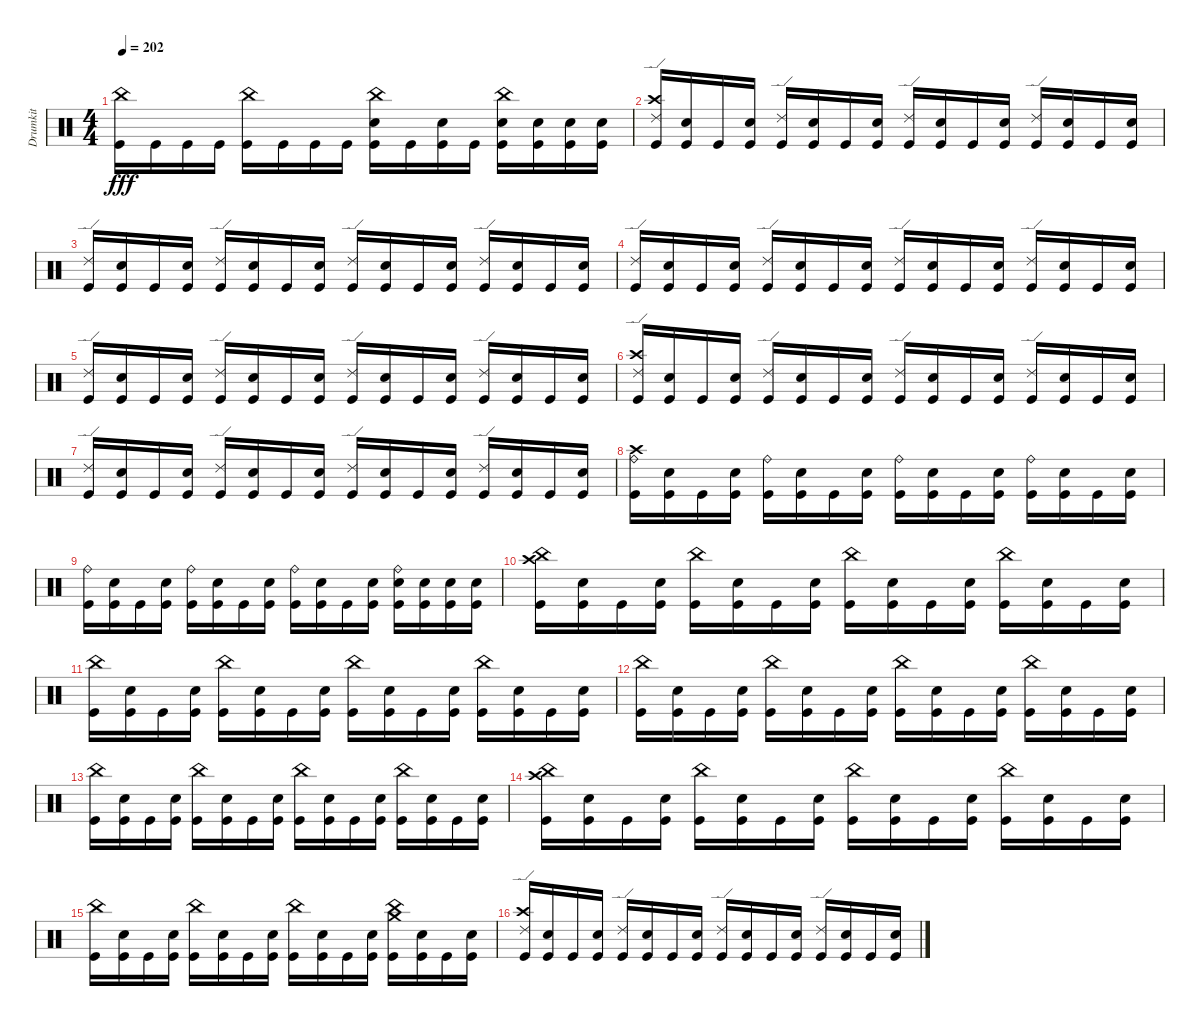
\track ("Drumkit" "Drumkit") {instrument percussion}
\staff {score}
\articulation defaults
\ts (4 4)
\tempo 202
\clef neutral
\ks c
("China (hit)" "Kick (hit)").16{dy fff} "Kick (hit)".16 "Kick (hit)".16 "Kick (hit)".16 ("China (hit)" "Kick (hit)").16 "Kick (hit)".16 "Kick (hit)".16 "Kick (hit)".16 ("China (hit)" "Snare (hit) 2" "Kick (hit)").16 "Kick (hit)".16 ("Snare (hit) 2" "Kick (hit)").16 "Kick (hit)".16 ("China (hit)" "Snare (hit) 2" "Kick (hit)").16 ("Snare (hit) 2" "Kick (hit)").16 ("Snare (hit) 2" "Kick (hit)").16 ("Snare (hit) 2" "Kick (hit)").16 |
("Crash high (hit)" "Ride (edge) 2" "Kick (hit)").16 ("Snare (hit) 2" "Kick (hit)").16 "Kick (hit)".16 ("Snare (hit) 2" "Kick (hit)").16 ("Ride (edge) 2" "Kick (hit)").16 ("Snare (hit) 2" "Kick (hit)").16 "Kick (hit)".16 ("Snare (hit) 2" "Kick (hit)").16 ("Ride (edge) 2" "Kick (hit)").16 ("Snare (hit) 2" "Kick (hit)").16 "Kick (hit)".16 ("Snare (hit) 2" "Kick (hit)").16 ("Ride (edge) 2" "Kick (hit)").16 ("Snare (hit) 2" "Kick (hit)").16 "Kick (hit)".16 ("Snare (hit) 2" "Kick (hit)").16 |
("Ride (edge) 2" "Kick (hit)").16 ("Snare (hit) 2" "Kick (hit)").16 "Kick (hit)".16 ("Snare (hit) 2" "Kick (hit)").16 ("Ride (edge) 2" "Kick (hit)").16 ("Snare (hit) 2" "Kick (hit)").16 "Kick (hit)".16 ("Snare (hit) 2" "Kick (hit)").16 ("Ride (edge) 2" "Kick (hit)").16 ("Snare (hit) 2" "Kick (hit)").16 "Kick (hit)".16 ("Snare (hit) 2" "Kick (hit)").16 ("Ride (edge) 2" "Kick (hit)").16 ("Snare (hit) 2" "Kick (hit)").16 "Kick (hit)".16 ("Snare (hit) 2" "Kick (hit)").16 |
("Ride (edge) 2" "Kick (hit)").16 ("Snare (hit) 2" "Kick (hit)").16 "Kick (hit)".16 ("Snare (hit) 2" "Kick (hit)").16 ("Ride (edge) 2" "Kick (hit)").16 ("Snare (hit) 2" "Kick (hit)").16 "Kick (hit)".16 ("Snare (hit) 2" "Kick (hit)").16 ("Ride (edge) 2" "Kick (hit)").16 ("Snare (hit) 2" "Kick (hit)").16 "Kick (hit)".16 ("Snare (hit) 2" "Kick (hit)").16 ("Ride (edge) 2" "Kick (hit)").16 ("Snare (hit) 2" "Kick (hit)").16 "Kick (hit)".16 ("Snare (hit) 2" "Kick (hit)").16 |
("Ride (edge) 2" "Kick (hit)").16 ("Snare (hit) 2" "Kick (hit)").16 "Kick (hit)".16 ("Snare (hit) 2" "Kick (hit)").16 ("Ride (edge) 2" "Kick (hit)").16 ("Snare (hit) 2" "Kick (hit)").16 "Kick (hit)".16 ("Snare (hit) 2" "Kick (hit)").16 ("Ride (edge) 2" "Kick (hit)").16 ("Snare (hit) 2" "Kick (hit)").16 "Kick (hit)".16 ("Snare (hit) 2" "Kick (hit)").16 ("Ride (edge) 2" "Kick (hit)").16 ("Snare (hit) 2" "Kick (hit)").16 "Kick (hit)".16 ("Snare (hit) 2" "Kick (hit)").16 |
("Crash high (hit)" "Ride (edge) 2" "Kick (hit)").16 ("Snare (hit) 2" "Kick (hit)").16 "Kick (hit)".16 ("Snare (hit) 2" "Kick (hit)").16 ("Ride (edge) 2" "Kick (hit)").16 ("Snare (hit) 2" "Kick (hit)").16 "Kick (hit)".16 ("Snare (hit) 2" "Kick (hit)").16 ("Ride (edge) 2" "Kick (hit)").16 ("Snare (hit) 2" "Kick (hit)").16 "Kick (hit)".16 ("Snare (hit) 2" "Kick (hit)").16 ("Ride (edge) 2" "Kick (hit)").16 ("Snare (hit) 2" "Kick (hit)").16 "Kick (hit)".16 ("Snare (hit) 2" "Kick (hit)").16 |
("Ride (edge) 2" "Kick (hit)").16 ("Snare (hit) 2" "Kick (hit)").16 "Kick (hit)".16 ("Snare (hit) 2" "Kick (hit)").16 ("Ride (edge) 2" "Kick (hit)").16 ("Snare (hit) 2" "Kick (hit)").16 "Kick (hit)".16 ("Snare (hit) 2" "Kick (hit)").16 ("Ride (edge) 2" "Kick (hit)").16 ("Snare (hit) 2" "Kick (hit)").16 "Kick (hit)".16 ("Snare (hit) 2" "Kick (hit)").16 ("Ride (edge) 2" "Kick (hit)").16 ("Snare (hit) 2" "Kick (hit)").16 "Kick (hit)".16 ("Snare (hit) 2" "Kick (hit)").16 |
("Ride (bell)" "Crash high (hit)" "Kick (hit)").16 ("Snare (hit) 2" "Kick (hit)").16 "Kick (hit)".16 ("Snare (hit) 2" "Kick (hit)").16 ("Ride (bell)" "Kick (hit)").16 ("Snare (hit) 2" "Kick (hit)").16 "Kick (hit)".16 ("Snare (hit) 2" "Kick (hit)").16 ("Ride (bell)" "Kick (hit)").16 ("Snare (hit) 2" "Kick (hit)").16 "Kick (hit)".16 ("Snare (hit) 2" "Kick (hit)").16 ("Ride (bell)" "Kick (hit)").16 ("Snare (hit) 2" "Kick (hit)").16 "Kick (hit)".16 ("Snare (hit) 2" "Kick (hit)").16 |
("Ride (bell)" "Kick (hit)").16 ("Snare (hit) 2" "Kick (hit)").16 "Kick (hit)".16 ("Snare (hit) 2" "Kick (hit)").16 ("Ride (bell)" "Kick (hit)").16 ("Snare (hit) 2" "Kick (hit)").16 "Kick (hit)".16 ("Snare (hit) 2" "Kick (hit)").16 ("Ride (bell)" "Kick (hit)").16 ("Snare (hit) 2" "Kick (hit)").16 "Kick (hit)".16 ("Snare (hit) 2" "Kick (hit)").16 ("Ride (bell)" "Snare (hit) 2" "Kick (hit)").16 ("Snare (hit) 2" "Kick (hit)").16 ("Snare (hit) 2" "Kick (hit)").16 ("Snare (hit) 2" "Kick (hit)").16 |
\section ("" "")
("China (hit)" "Crash high (hit)" "Kick (hit)").16 ("Snare (hit) 2" "Kick (hit)").16 "Kick (hit)".16 ("Snare (hit) 2" "Kick (hit)").16 ("China (hit)" "Kick (hit)").16 ("Snare (hit) 2" "Kick (hit)").16 "Kick (hit)".16 ("Snare (hit) 2" "Kick (hit)").16 ("China (hit)" "Kick (hit)").16 ("Snare (hit) 2" "Kick (hit)").16 "Kick (hit)".16 ("Snare (hit) 2" "Kick (hit)").16 ("China (hit)" "Kick (hit)").16 ("Snare (hit) 2" "Kick (hit)").16 "Kick (hit)".16 ("Snare (hit) 2" "Kick (hit)").16 |
("China (hit)" "Kick (hit)").16 ("Snare (hit) 2" "Kick (hit)").16 "Kick (hit)".16 ("Snare (hit) 2" "Kick (hit)").16 ("China (hit)" "Kick (hit)").16 ("Snare (hit) 2" "Kick (hit)").16 "Kick (hit)".16 ("Snare (hit) 2" "Kick (hit)").16 ("China (hit)" "Kick (hit)").16 ("Snare (hit) 2" "Kick (hit)").16 "Kick (hit)".16 ("Snare (hit) 2" "Kick (hit)").16 ("China (hit)" "Kick (hit)").16 ("Snare (hit) 2" "Kick (hit)").16 "Kick (hit)".16 ("Snare (hit) 2" "Kick (hit)").16 |
("China (hit)" "Kick (hit)").16 ("Snare (hit) 2" "Kick (hit)").16 "Kick (hit)".16 ("Snare (hit) 2" "Kick (hit)").16 ("China (hit)" "Kick (hit)").16 ("Snare (hit) 2" "Kick (hit)").16 "Kick (hit)".16 ("Snare (hit) 2" "Kick (hit)").16 ("China (hit)" "Kick (hit)").16 ("Snare (hit) 2" "Kick (hit)").16 "Kick (hit)".16 ("Snare (hit) 2" "Kick (hit)").16 ("China (hit)" "Kick (hit)").16 ("Snare (hit) 2" "Kick (hit)").16 "Kick (hit)".16 ("Snare (hit) 2" "Kick (hit)").16 |
("China (hit)" "Kick (hit)").16 ("Snare (hit) 2" "Kick (hit)").16 "Kick (hit)".16 ("Snare (hit) 2" "Kick (hit)").16 ("China (hit)" "Kick (hit)").16 ("Snare (hit) 2" "Kick (hit)").16 "Kick (hit)".16 ("Snare (hit) 2" "Kick (hit)").16 ("China (hit)" "Kick (hit)").16 ("Snare (hit) 2" "Kick (hit)").16 "Kick (hit)".16 ("Snare (hit) 2" "Kick (hit)").16 ("China (hit)" "Kick (hit)").16 ("Snare (hit) 2" "Kick (hit)").16 "Kick (hit)".16 ("Snare (hit) 2" "Kick (hit)").16 |
("China (hit)" "Crash high (hit)" "Kick (hit)").16 ("Snare (hit) 2" "Kick (hit)").16 "Kick (hit)".16 ("Snare (hit) 2" "Kick (hit)").16 ("China (hit)" "Kick (hit)").16 ("Snare (hit) 2" "Kick (hit)").16 "Kick (hit)".16 ("Snare (hit) 2" "Kick (hit)").16 ("China (hit)" "Kick (hit)").16 ("Snare (hit) 2" "Kick (hit)").16 "Kick (hit)".16 ("Snare (hit) 2" "Kick (hit)").16 ("China (hit)" "Kick (hit)").16 ("Snare (hit) 2" "Kick (hit)").16 "Kick (hit)".16 ("Snare (hit) 2" "Kick (hit)").16 |
("China (hit)" "Kick (hit)").16 ("Snare (hit) 2" "Kick (hit)").16 "Kick (hit)".16 ("Snare (hit) 2" "Kick (hit)").16 ("China (hit)" "Kick (hit)").16 ("Snare (hit) 2" "Kick (hit)").16 "Kick (hit)".16 ("Snare (hit) 2" "Kick (hit)").16 ("China (hit)" "Kick (hit)").16 ("Snare (hit) 2" "Kick (hit)").16 "Kick (hit)".16 ("Snare (hit) 2" "Kick (hit)").16 ("China (hit)" "Crash medium (hit)" "Kick (hit)").16 ("Snare (hit) 2" "Kick (hit)").16 "Kick (hit)".16 ("Snare (hit) 2" "Kick (hit)").16 |
("Crash high (hit)" "Ride (edge) 2" "Kick (hit)").16 ("Snare (hit) 2" "Kick (hit)").16 "Kick (hit)".16 ("Snare (hit) 2" "Kick (hit)").16 ("Ride (edge) 2" "Kick (hit)").16 ("Snare (hit) 2" "Kick (hit)").16 "Kick (hit)".16 ("Snare (hit) 2" "Kick (hit)").16 ("Ride (edge) 2" "Kick (hit)").16 ("Snare (hit) 2" "Kick (hit)").16 "Kick (hit)".16 ("Snare (hit) 2" "Kick (hit)").16 ("Ride (edge) 2" "Kick (hit)").16 ("Snare (hit) 2" "Kick (hit)").16 "Kick (hit)".16 ("Snare (hit) 2" "Kick (hit)").16
